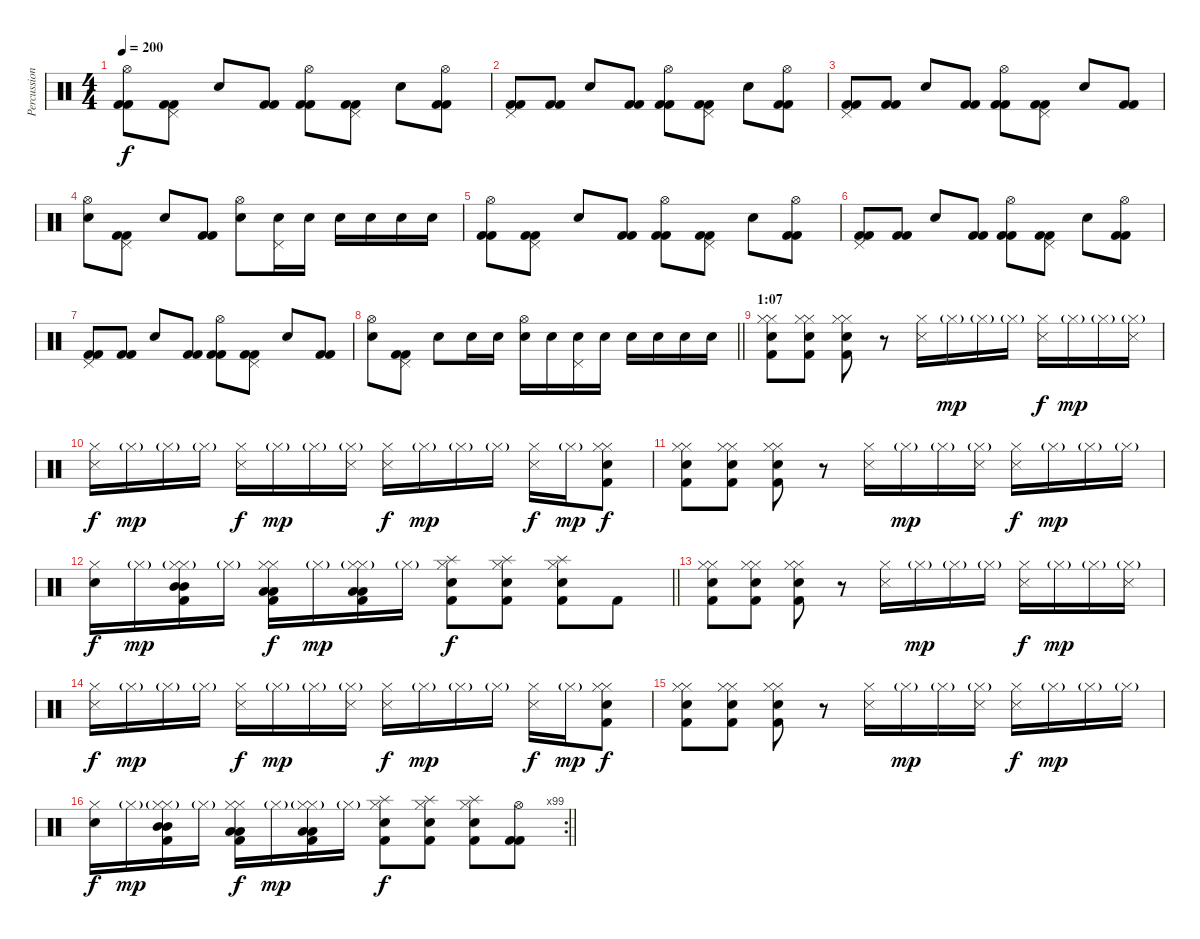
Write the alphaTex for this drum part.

\track ("Percussion" "Percussion") {instrument percussion}
\staff {score}
\articulation defaults
\ts (4 4)
\tempo 200
\clef neutral
\ks c
("Hi-Hat (open)" "Kick (hit) 2" "Kick (hit) 2").8{dy f} ("Pedal Hi-Hat (hit)" "Kick (hit) 2" "Kick (hit) 2").8 "Snare (hit) 2".8 ("Kick (hit) 2" "Kick (hit) 2").8 ("Hi-Hat (open)" "Kick (hit) 2" "Kick (hit) 2").8 ("Pedal Hi-Hat (hit)" "Kick (hit) 2" "Kick (hit) 2").8 "Snare (hit) 2".8 ("Hi-Hat (open)" "Kick (hit) 2" "Kick (hit) 2").8 |
("Pedal Hi-Hat (hit)" "Kick (hit) 2" "Kick (hit) 2").8 ("Kick (hit) 2" "Kick (hit) 2").8 "Snare (hit) 2".8 ("Kick (hit) 2" "Kick (hit) 2").8 ("Hi-Hat (open)" "Kick (hit) 2" "Kick (hit) 2").8 ("Pedal Hi-Hat (hit)" "Kick (hit) 2" "Kick (hit) 2").8 "Snare (hit) 2".8 ("Hi-Hat (open)" "Kick (hit) 2" "Kick (hit) 2").8 |
("Pedal Hi-Hat (hit)" "Kick (hit) 2" "Kick (hit) 2").8 ("Kick (hit) 2" "Kick (hit) 2").8 "Snare (hit) 2".8 ("Kick (hit) 2" "Kick (hit) 2").8 ("Hi-Hat (open)" "Kick (hit) 2" "Kick (hit) 2").8 ("Pedal Hi-Hat (hit)" "Kick (hit) 2" "Kick (hit) 2").8 "Snare (hit) 2".8 ("Kick (hit) 2" "Kick (hit) 2").8 |
("Hi-Hat (open)" "Snare (hit) 2").8 ("Pedal Hi-Hat (hit)" "Kick (hit) 2" "Kick (hit) 2").8 "Snare (hit) 2".8 ("Kick (hit) 2" "Kick (hit) 2").8 ("Hi-Hat (open)" "Snare (hit) 2").8 ("Pedal Hi-Hat (hit)" "Snare (hit) 2").16 "Snare (hit) 2".16 "Snare (hit) 2".16 "Snare (hit) 2".16 "Snare (hit) 2".16 "Snare (hit) 2".16 |
("Hi-Hat (open)" "Kick (hit) 2" "Kick (hit) 2").8 ("Pedal Hi-Hat (hit)" "Kick (hit) 2" "Kick (hit) 2").8 "Snare (hit) 2".8 ("Kick (hit) 2" "Kick (hit) 2").8 ("Hi-Hat (open)" "Kick (hit) 2" "Kick (hit) 2").8 ("Pedal Hi-Hat (hit)" "Kick (hit) 2" "Kick (hit) 2").8 "Snare (hit) 2".8 ("Hi-Hat (open)" "Kick (hit) 2" "Kick (hit) 2").8 |
("Pedal Hi-Hat (hit)" "Kick (hit) 2" "Kick (hit) 2").8 ("Kick (hit) 2" "Kick (hit) 2").8 "Snare (hit) 2".8 ("Kick (hit) 2" "Kick (hit) 2").8 ("Hi-Hat (open)" "Kick (hit) 2" "Kick (hit) 2").8 ("Pedal Hi-Hat (hit)" "Kick (hit) 2" "Kick (hit) 2").8 "Snare (hit) 2".8 ("Hi-Hat (open)" "Kick (hit) 2" "Kick (hit) 2").8 |
("Pedal Hi-Hat (hit)" "Kick (hit) 2" "Kick (hit) 2").8 ("Kick (hit) 2" "Kick (hit) 2").8 "Snare (hit) 2".8 ("Kick (hit) 2" "Kick (hit) 2").8 ("Hi-Hat (open)" "Kick (hit) 2" "Kick (hit) 2").8 ("Pedal Hi-Hat (hit)" "Kick (hit) 2" "Kick (hit) 2").8 "Snare (hit) 2".8 ("Kick (hit) 2" "Kick (hit) 2").8 |
\barLineRight lightlight
("Hi-Hat (open)" "Snare (hit) 2").8 ("Pedal Hi-Hat (hit)" "Kick (hit) 2" "Kick (hit) 2").8 "Snare (hit) 2".8 "Snare (hit) 2".16 "Snare (hit) 2".16 ("Hi-Hat (open)" "Snare (hit) 2").16 "Snare (hit) 2".16 ("Pedal Hi-Hat (hit)" "Snare (hit) 2").16 "Snare (hit) 2".16 "Snare (hit) 2".16 "Snare (hit) 2".16 "Snare (hit) 2".16 "Snare (hit) 2".16 |
\section ("" "1:07")
("Hi-Hat (closed)" "Snare (hit) 2" "Hi-Hat (closed)" "Kick (hit) 2").8 ("Hi-Hat (closed)" "Snare (hit) 2" "Hi-Hat (closed)" "Kick (hit) 2").8 ("Hi-Hat (closed)" "Snare (hit) 2" "Hi-Hat (closed)" "Kick (hit) 2").8 r.8 ("Hi-Hat (closed)" "Metronome (hit)").16 "Hi-Hat (closed)"{g}.16{dy mp} "Hi-Hat (closed)"{g}.16 "Hi-Hat (closed)"{g}.16 ("Hi-Hat (closed)" "Metronome (hit)").16{dy f} "Hi-Hat (closed)"{g}.16{dy mp} "Hi-Hat (closed)"{g}.16 ("Hi-Hat (closed)"{g} "Metronome (hit)").16 |
("Hi-Hat (closed)" "Metronome (hit)").16{dy f} "Hi-Hat (closed)"{g}.16{dy mp} "Hi-Hat (closed)"{g}.16 "Hi-Hat (closed)"{g}.16 ("Hi-Hat (closed)" "Metronome (hit)").16{dy f} "Hi-Hat (closed)"{g}.16{dy mp} "Hi-Hat (closed)"{g}.16 ("Hi-Hat (closed)"{g} "Metronome (hit)").16 ("Hi-Hat (closed)" "Metronome (hit)").16{dy f} "Hi-Hat (closed)"{g}.16{dy mp} "Hi-Hat (closed)"{g}.16 "Hi-Hat (closed)"{g}.16 ("Hi-Hat (closed)" "Metronome (hit)").16{dy f} "Hi-Hat (closed)"{g}.16{dy mp} ("Hi-Hat (closed)" "Snare (hit) 2" "Hi-Hat (closed)" "Kick (hit) 2").8{dy f} |
("Hi-Hat (closed)" "Snare (hit) 2" "Hi-Hat (closed)" "Kick (hit) 2").8 ("Hi-Hat (closed)" "Snare (hit) 2" "Hi-Hat (closed)" "Kick (hit) 2").8 ("Hi-Hat (closed)" "Snare (hit) 2" "Hi-Hat (closed)" "Kick (hit) 2").8 r.8 ("Hi-Hat (closed)" "Metronome (hit)").16 "Hi-Hat (closed)"{g}.16{dy mp} "Hi-Hat (closed)"{g}.16 ("Hi-Hat (closed)"{g} "Metronome (hit)").16 ("Hi-Hat (closed)" "Metronome (hit)").16{dy f} "Hi-Hat (closed)"{g}.16{dy mp} "Hi-Hat (closed)"{g}.16 "Hi-Hat (closed)"{g}.16 |
\barLineRight lightlight
("Hi-Hat (closed)" "Snare (hit) 2").16{dy f} "Hi-Hat (closed)"{g}.16{dy mp} ("Mid Tom (hit)" "Mid Tom (hit)" "Hi-Hat (closed)"{g} "Hi-Hat (closed)" "Kick (hit) 2").16 "Hi-Hat (closed)"{g}.16 ("Low Tom (hit)" "Hi-Hat (closed)" "Low Tom (hit)" "Hi-Hat (closed)" "Kick (hit) 2").16{dy f} "Hi-Hat (closed)"{g}.16{dy mp} ("Low Tom (hit)" "Hi-Hat (closed)"{g} "Low Tom (hit)" "Hi-Hat (closed)" "Kick (hit) 2").16 "Hi-Hat (closed)"{g}.16 ("Splash (hit)" "Snare (hit) 2" "Hi-Hat (closed)" "Kick (hit) 2").8{dy f} ("Splash (hit)" "Snare (hit) 2" "Hi-Hat (closed)" "Kick (hit) 2").8 ("Splash (hit)" "Snare (hit) 2" "Hi-Hat (closed)" "Kick (hit) 2").8 "Kick (hit) 2".8 |
("Hi-Hat (closed)" "Snare (hit) 2" "Hi-Hat (closed)" "Kick (hit) 2").8 ("Hi-Hat (closed)" "Snare (hit) 2" "Hi-Hat (closed)" "Kick (hit) 2").8 ("Hi-Hat (closed)" "Snare (hit) 2" "Hi-Hat (closed)" "Kick (hit) 2").8 r.8 ("Hi-Hat (closed)" "Metronome (hit)").16 "Hi-Hat (closed)"{g}.16{dy mp} "Hi-Hat (closed)"{g}.16 "Hi-Hat (closed)"{g}.16 ("Hi-Hat (closed)" "Metronome (hit)").16{dy f} "Hi-Hat (closed)"{g}.16{dy mp} "Hi-Hat (closed)"{g}.16 ("Hi-Hat (closed)"{g} "Metronome (hit)").16 |
("Hi-Hat (closed)" "Metronome (hit)").16{dy f} "Hi-Hat (closed)"{g}.16{dy mp} "Hi-Hat (closed)"{g}.16 "Hi-Hat (closed)"{g}.16 ("Hi-Hat (closed)" "Metronome (hit)").16{dy f} "Hi-Hat (closed)"{g}.16{dy mp} "Hi-Hat (closed)"{g}.16 ("Hi-Hat (closed)"{g} "Metronome (hit)").16 ("Hi-Hat (closed)" "Metronome (hit)").16{dy f} "Hi-Hat (closed)"{g}.16{dy mp} "Hi-Hat (closed)"{g}.16 "Hi-Hat (closed)"{g}.16 ("Hi-Hat (closed)" "Metronome (hit)").16{dy f} "Hi-Hat (closed)"{g}.16{dy mp} ("Hi-Hat (closed)" "Snare (hit) 2" "Hi-Hat (closed)" "Kick (hit) 2").8{dy f} |
("Hi-Hat (closed)" "Snare (hit) 2" "Hi-Hat (closed)" "Kick (hit) 2").8 ("Hi-Hat (closed)" "Snare (hit) 2" "Hi-Hat (closed)" "Kick (hit) 2").8 ("Hi-Hat (closed)" "Snare (hit) 2" "Hi-Hat (closed)" "Kick (hit) 2").8 r.8 ("Hi-Hat (closed)" "Metronome (hit)").16 "Hi-Hat (closed)"{g}.16{dy mp} "Hi-Hat (closed)"{g}.16 ("Hi-Hat (closed)"{g} "Metronome (hit)").16 ("Hi-Hat (closed)" "Metronome (hit)").16{dy f} "Hi-Hat (closed)"{g}.16{dy mp} "Hi-Hat (closed)"{g}.16 "Hi-Hat (closed)"{g}.16 |
\rc 99
\barLineRight lightlight
("Hi-Hat (closed)" "Snare (hit) 2").16{dy f} "Hi-Hat (closed)"{g}.16{dy mp} ("Mid Tom (hit)" "Mid Tom (hit)" "Hi-Hat (closed)"{g} "Hi-Hat (closed)" "Kick (hit) 2").16 "Hi-Hat (closed)"{g}.16 ("Low Tom (hit)" "Hi-Hat (closed)" "Low Tom (hit)" "Hi-Hat (closed)" "Kick (hit) 2").16{dy f} "Hi-Hat (closed)"{g}.16{dy mp} ("Low Tom (hit)" "Hi-Hat (closed)"{g} "Low Tom (hit)" "Hi-Hat (closed)" "Kick (hit) 2").16 "Hi-Hat (closed)"{g}.16 ("Splash (hit)" "Snare (hit) 2" "Hi-Hat (closed)" "Kick (hit) 2").8{dy f} ("Splash (hit)" "Snare (hit) 2" "Hi-Hat (closed)" "Kick (hit) 2").8 ("Splash (hit)" "Snare (hit) 2" "Hi-Hat (closed)" "Kick (hit) 2").8 ("Hi-Hat (open)" "Kick (hit) 2" "Kick (hit) 2").8
